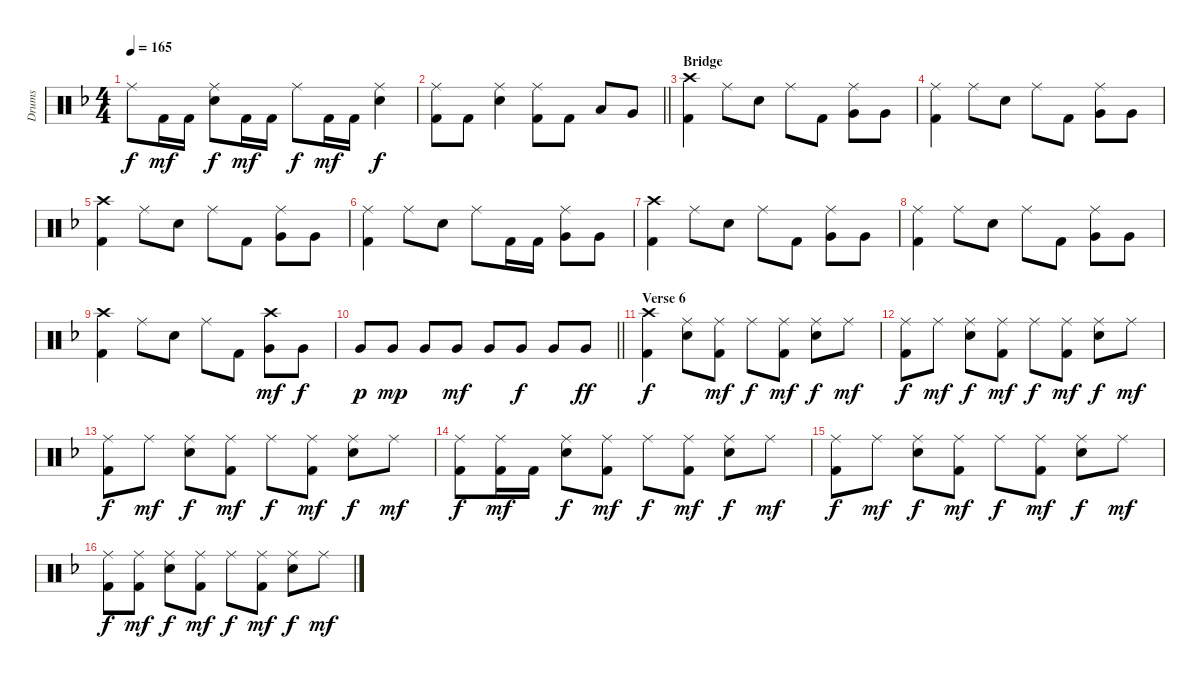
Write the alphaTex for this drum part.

\track ("Drums" "Drums") {instrument percussion}
\staff {score}
\articulation defaults
\ts (4 4)
\tempo 165
\clef neutral
\ks f "Ride (middle)".8{dy f} "Kick (hit) 2".16{dy mf} "Kick (hit) 2".16
("Ride (middle)" "Electric Snare (hit)").8{dy f} "Kick (hit) 2".16{dy mf} "Kick (hit) 2".16 "Ride (middle)".8{dy f} "Kick (hit) 2".16{dy mf} "Kick (hit) 2".16 ("Ride (middle)" "Electric Snare (hit)").4{dy f} |
\barLineRight lightlight
("Ride (middle)" "Kick (hit) 2").8 "Kick (hit) 2".8 ("Ride (middle)" "Electric Snare (hit)").4 ("Ride (middle)" "Kick (hit) 2").8 "Kick (hit) 2".8 "Low Tom (hit)".8 "Very Low Tom (hit)".8 |
\section ("" "Bridge")
("Crash high (hit)" "Kick (hit) 2").4 "Ride (middle)".8 "Electric Snare (hit)".8 "Ride (middle)".8 "Kick (hit) 2".8 ("Ride (middle)" "Very Low Tom (hit)").8 "Very Low Tom (hit)".8 |
("Ride (middle)" "Kick (hit) 2").4 "Ride (middle)".8 "Electric Snare (hit)".8 "Ride (middle)".8 "Kick (hit) 2".8 ("Ride (middle)" "Very Low Tom (hit)").8 "Very Low Tom (hit)".8 |
("Crash high (hit)" "Kick (hit) 2").4 "Ride (middle)".8 "Electric Snare (hit)".8 "Ride (middle)".8 "Kick (hit) 2".8 ("Ride (middle)" "Very Low Tom (hit)").8 "Very Low Tom (hit)".8 |
("Ride (middle)" "Kick (hit) 2").4 "Ride (middle)".8 "Electric Snare (hit)".8 "Ride (middle)".8 "Kick (hit) 2".16 "Kick (hit) 2".16 ("Ride (middle)" "Very Low Tom (hit)").8 "Very Low Tom (hit)".8 |
("Crash high (hit)" "Kick (hit) 2").4 "Ride (middle)".8 "Electric Snare (hit)".8 "Ride (middle)".8 "Kick (hit) 2".8 ("Ride (middle)" "Very Low Tom (hit)").8 "Very Low Tom (hit)".8 |
("Ride (middle)" "Kick (hit) 2").4 "Ride (middle)".8 "Electric Snare (hit)".8 "Ride (middle)".8 "Kick (hit) 2".8 ("Ride (middle)" "Very Low Tom (hit)").8 "Very Low Tom (hit)".8 |
("Crash high (hit)" "Kick (hit) 2").4 "Ride (middle)".8 "Electric Snare (hit)".8 "Ride (middle)".8 "Kick (hit) 2".8 ("Crash high (hit)" "Very Low Tom (hit)").8{dy mf} "Very Low Tom (hit)".8{dy f} |
\barLineRight lightlight "Very Low Tom (hit)".8{dy p} "Very Low Tom (hit)".8{dy mp} "Very Low Tom (hit)".8 "Very Low Tom (hit)".8{dy mf} "Very Low Tom (hit)".8 "Very Low Tom (hit)".8{dy f} "Very Low Tom (hit)".8 "Very Low Tom (hit)".8{dy ff}
|
\section ("" "Verse 6")
("Crash high (hit)" "Kick (hit) 2").4{dy f} ("Ride (middle)" "Electric Snare (hit)").8 ("Ride (middle)" "Kick (hit) 2").8{dy mf} "Ride (middle)".8{dy f} ("Ride (middle)" "Kick (hit) 2").8{dy mf} ("Ride (middle)" "Electric Snare (hit)").8{dy f} "Ride (middle)".8{dy mf} |
("Ride (middle)" "Kick (hit) 2").8{dy f} "Ride (middle)".8{dy mf} ("Ride (middle)" "Electric Snare (hit)").8{dy f} ("Ride (middle)" "Kick (hit) 2").8{dy mf} "Ride (middle)".8{dy f} ("Ride (middle)" "Kick (hit) 2").8{dy mf} ("Ride (middle)" "Electric Snare (hit)").8{dy f} "Ride (middle)".8{dy mf} |
("Ride (middle)" "Kick (hit) 2").8{dy f} "Ride (middle)".8{dy mf} ("Ride (middle)" "Electric Snare (hit)").8{dy f} ("Ride (middle)" "Kick (hit) 2").8{dy mf} "Ride (middle)".8{dy f} ("Ride (middle)" "Kick (hit) 2").8{dy mf} ("Ride (middle)" "Electric Snare (hit)").8{dy f} "Ride (middle)".8{dy mf} |
("Ride (middle)" "Kick (hit) 2").8{dy f} ("Ride (middle)" "Kick (hit) 2").16{dy mf} "Kick (hit) 2".16 ("Ride (middle)" "Electric Snare (hit)").8{dy f} ("Ride (middle)" "Kick (hit) 2").8{dy mf} "Ride (middle)".8{dy f} ("Ride (middle)" "Kick (hit) 2").8{dy mf} ("Ride (middle)" "Electric Snare (hit)").8{dy f} "Ride (middle)".8{dy mf} |
("Ride (middle)" "Kick (hit) 2").8{dy f} "Ride (middle)".8{dy mf} ("Ride (middle)" "Electric Snare (hit)").8{dy f} ("Ride (middle)" "Kick (hit) 2").8{dy mf} "Ride (middle)".8{dy f} ("Ride (middle)" "Kick (hit) 2").8{dy mf} ("Ride (middle)" "Electric Snare (hit)").8{dy f} "Ride (middle)".8{dy mf} |
("Ride (middle)" "Kick (hit) 2").8{dy f} ("Ride (middle)" "Kick (hit) 2").8{dy mf} ("Ride (middle)" "Electric Snare (hit)").8{dy f} ("Ride (middle)" "Kick (hit) 2").8{dy mf} "Ride (middle)".8{dy f} ("Ride (middle)" "Kick (hit) 2").8{dy mf} ("Ride (middle)" "Electric Snare (hit)").8{dy f} "Ride (middle)".8{dy mf}
